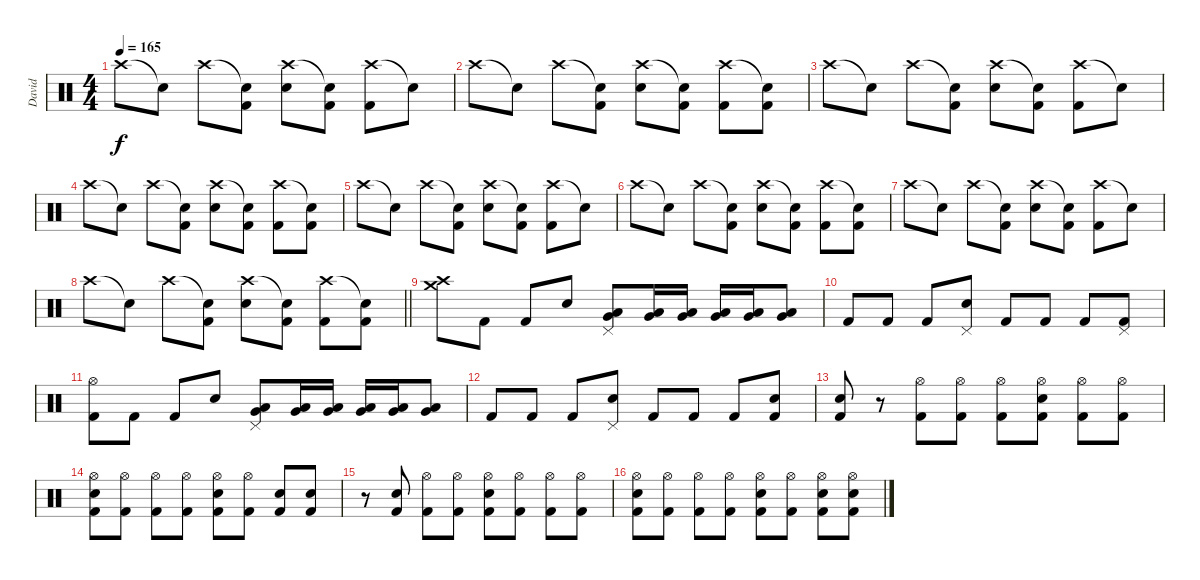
\track ("David" "David") {instrument percussion}
\staff {score}
\articulation defaults
\ts (4 4)
\tempo 165
\clef neutral
\ks c "Crash high (hit)".8{dy f} "Snare (hit)"{t}.8 "Crash high (hit)".8
("Snare (hit)"{t} "Kick (hit) 2").8 ("Crash high (hit)" "Electric Snare (hit)").8 ("Snare (hit)"{t} "Kick (hit) 2").8 ("Crash high (hit)" "Kick (hit) 2").8 "Snare (hit)"{t}.8 |
"Crash high (hit)".8 "Snare (hit)"{t}.8 "Crash high (hit)".8 ("Snare (hit)"{t} "Kick (hit) 2").8 ("Crash high (hit)" "Electric Snare (hit)").8 ("Snare (hit)"{t} "Kick (hit) 2").8 ("Crash high (hit)" "Kick (hit) 2").8 ("Snare (hit)"{t} "Kick (hit) 2").8 |
"Crash high (hit)".8 "Snare (hit)"{t}.8 "Crash high (hit)".8 ("Snare (hit)"{t} "Kick (hit) 2").8 ("Crash high (hit)" "Electric Snare (hit)").8 ("Snare (hit)"{t} "Kick (hit) 2").8 ("Crash high (hit)" "Kick (hit) 2").8 "Snare (hit)"{t}.8 |
"Crash high (hit)".8 "Snare (hit)"{t}.8 "Crash high (hit)".8 ("Snare (hit)"{t} "Kick (hit) 2").8 ("Crash high (hit)" "Electric Snare (hit)").8 ("Snare (hit)"{t} "Kick (hit) 2").8 ("Crash high (hit)" "Kick (hit) 2").8 ("Snare (hit)"{t} "Kick (hit) 2").8 |
"Crash high (hit)".8 "Snare (hit)"{t}.8 "Crash high (hit)".8 ("Snare (hit)"{t} "Kick (hit) 2").8 ("Crash high (hit)" "Electric Snare (hit)").8 ("Snare (hit)"{t} "Kick (hit) 2").8 ("Crash high (hit)" "Kick (hit) 2").8 "Snare (hit)"{t}.8 |
"Crash high (hit)".8 "Snare (hit)"{t}.8 "Crash high (hit)".8 ("Snare (hit)"{t} "Kick (hit) 2").8 ("Crash high (hit)" "Electric Snare (hit)").8 ("Snare (hit)"{t} "Kick (hit) 2").8 ("Crash high (hit)" "Kick (hit) 2").8 ("Snare (hit)"{t} "Kick (hit) 2").8 |
"Crash high (hit)".8 "Snare (hit)"{t}.8 "Crash high (hit)".8 ("Snare (hit)"{t} "Kick (hit) 2").8 ("Crash high (hit)" "Electric Snare (hit)").8 ("Snare (hit)"{t} "Kick (hit) 2").8 ("Crash high (hit)" "Kick (hit) 2").8 "Snare (hit)"{t}.8 |
\barLineRight lightlight "Crash high (hit)".8 "Snare (hit)"{t}.8 "Crash high (hit)".8
("Snare (hit)"{t} "Kick (hit) 2").8 ("Crash high (hit)" "Electric Snare (hit)").8 ("Snare (hit)"{t} "Kick (hit) 2").8 ("Crash high (hit)" "Kick (hit) 2").8 ("Snare (hit)"{t} "Kick (hit) 2").8 |
("Crash medium (hit)" "Crash high (hit)").8 "Kick (hit) 2".8 "Kick (hit) 2".8 "Electric Snare (hit)".8 ("Low Tom (hit)" "Very Low Tom (hit)" "Pedal Hi-Hat (hit)").8 ("Low Tom (hit)" "Very Low Tom (hit)").16 ("Low Tom (hit)" "Very Low Tom (hit)").16 ("Low Tom (hit)" "Very Low Tom (hit)").16 ("Low Tom (hit)" "Very Low Tom (hit)").16 ("Low Tom (hit)" "Very Low Tom (hit)").8 |
"Kick (hit) 2".8 "Kick (hit) 2".8 "Kick (hit) 2".8 ("Electric Snare (hit)" "Pedal Hi-Hat (hit)").8 "Kick (hit) 2".8 "Kick (hit) 2".8 "Kick (hit) 2".8 ("Pedal Hi-Hat (hit)" "Kick (hit) 2").8 |
("Hi-Hat (open)" "Kick (hit) 2").8 "Kick (hit) 2".8 "Kick (hit) 2".8 "Electric Snare (hit)".8 ("Low Tom (hit)" "Very Low Tom (hit)" "Pedal Hi-Hat (hit)").8 ("Low Tom (hit)" "Very Low Tom (hit)").16 ("Low Tom (hit)" "Very Low Tom (hit)").16 ("Low Tom (hit)" "Very Low Tom (hit)").16 ("Low Tom (hit)" "Very Low Tom (hit)").16 ("Low Tom (hit)" "Very Low Tom (hit)").8 |
"Kick (hit) 2".8 "Kick (hit) 2".8 "Kick (hit) 2".8 ("Electric Snare (hit)" "Pedal Hi-Hat (hit)").8 "Kick (hit) 2".8 "Kick (hit) 2".8 "Kick (hit) 2".8 ("Electric Snare (hit)" "Kick (hit) 2").8 |
("Electric Snare (hit)" "Kick (hit) 2").8 r.8 ("Hi-Hat (open)" "Kick (hit) 2").8 ("Hi-Hat (open)" "Kick (hit) 2").8 ("Hi-Hat (open)" "Kick (hit) 2").8 ("Electric Snare (hit)" "Hi-Hat (open)" "Kick (hit) 2").8 ("Hi-Hat (open)" "Kick (hit) 2").8 ("Hi-Hat (open)" "Kick (hit) 2").8 |
("Electric Snare (hit)" "Hi-Hat (open)" "Kick (hit) 2").8 ("Hi-Hat (open)" "Kick (hit) 2").8 ("Hi-Hat (open)" "Kick (hit) 2").8 ("Hi-Hat (open)" "Kick (hit) 2").8 ("Electric Snare (hit)" "Hi-Hat (open)" "Kick (hit) 2").8 ("Hi-Hat (open)" "Kick (hit) 2").8 ("Electric Snare (hit)" "Kick (hit) 2").8 ("Electric Snare (hit)" "Kick (hit) 2").8 |
r.8 ("Electric Snare (hit)" "Kick (hit) 2").8 ("Hi-Hat (open)" "Kick (hit) 2").8 ("Hi-Hat (open)" "Kick (hit) 2").8 ("Electric Snare (hit)" "Hi-Hat (open)" "Kick (hit) 2").8 ("Hi-Hat (open)" "Kick (hit) 2").8 ("Hi-Hat (open)" "Kick (hit) 2").8 ("Hi-Hat (open)" "Kick (hit) 2").8 |
("Electric Snare (hit)" "Hi-Hat (open)" "Kick (hit) 2").8 ("Hi-Hat (open)" "Kick (hit) 2").8 ("Hi-Hat (open)" "Kick (hit) 2").8 ("Hi-Hat (open)" "Kick (hit) 2").8 ("Electric Snare (hit)" "Hi-Hat (open)" "Kick (hit) 2").8 ("Hi-Hat (open)" "Kick (hit) 2").8 ("Electric Snare (hit)" "Hi-Hat (open)" "Kick (hit) 2").8 ("Electric Snare (hit)" "Hi-Hat (open)" "Kick (hit) 2").8
